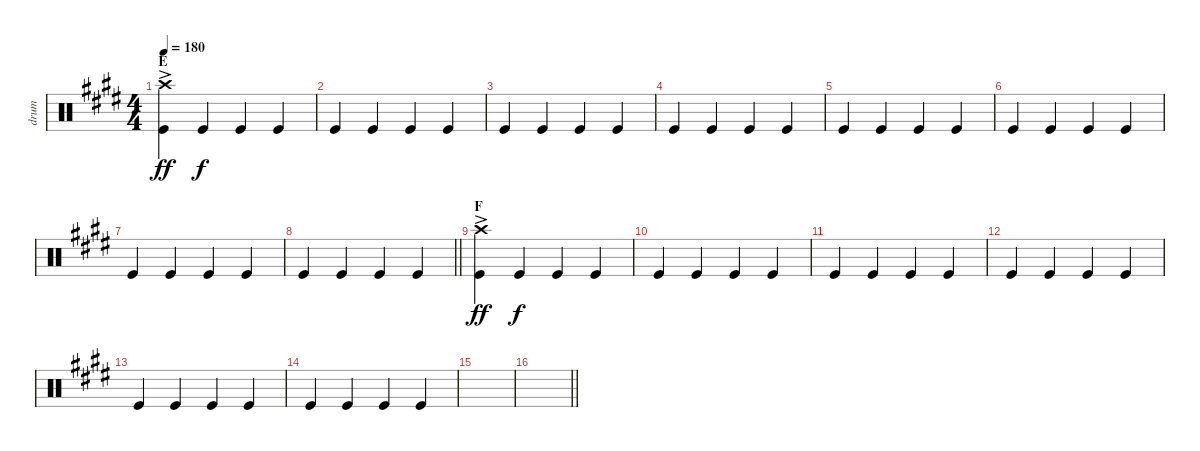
\track ("drum" "drum") {instrument percussion}
\staff {score}
\articulation defaults
\ts (4 4)
\section ("" "E")
\tempo 180
\clef neutral
\ks e
("Crash high (hit)"{ac} "Kick (hit)").4{dy ff} "Kick (hit)".4{dy f} "Kick (hit)".4 "Kick (hit)".4 |
"Kick (hit)".4 "Kick (hit)".4 "Kick (hit)".4 "Kick (hit)".4 |
"Kick (hit)".4 "Kick (hit)".4 "Kick (hit)".4 "Kick (hit)".4 |
"Kick (hit)".4 "Kick (hit)".4 "Kick (hit)".4 "Kick (hit)".4 |
"Kick (hit)".4 "Kick (hit)".4 "Kick (hit)".4 "Kick (hit)".4 |
"Kick (hit)".4 "Kick (hit)".4 "Kick (hit)".4 "Kick (hit)".4 |
"Kick (hit)".4 "Kick (hit)".4 "Kick (hit)".4 "Kick (hit)".4 |
\barLineRight lightlight "Kick (hit)".4 "Kick (hit)".4 "Kick (hit)".4 "Kick (hit)".4
|
\section ("" "F")
("Crash high (hit)"{ac} "Kick (hit)").4{dy ff} "Kick (hit)".4{dy f} "Kick (hit)".4 "Kick (hit)".4 |
"Kick (hit)".4 "Kick (hit)".4 "Kick (hit)".4 "Kick (hit)".4 |
"Kick (hit)".4 "Kick (hit)".4 "Kick (hit)".4 "Kick (hit)".4 |
"Kick (hit)".4 "Kick (hit)".4 "Kick (hit)".4 "Kick (hit)".4 |
"Kick (hit)".4 "Kick (hit)".4 "Kick (hit)".4 "Kick (hit)".4 |
"Kick (hit)".4 "Kick (hit)".4 "Kick (hit)".4 "Kick (hit)".4 |
|
\barLineRight lightlight
